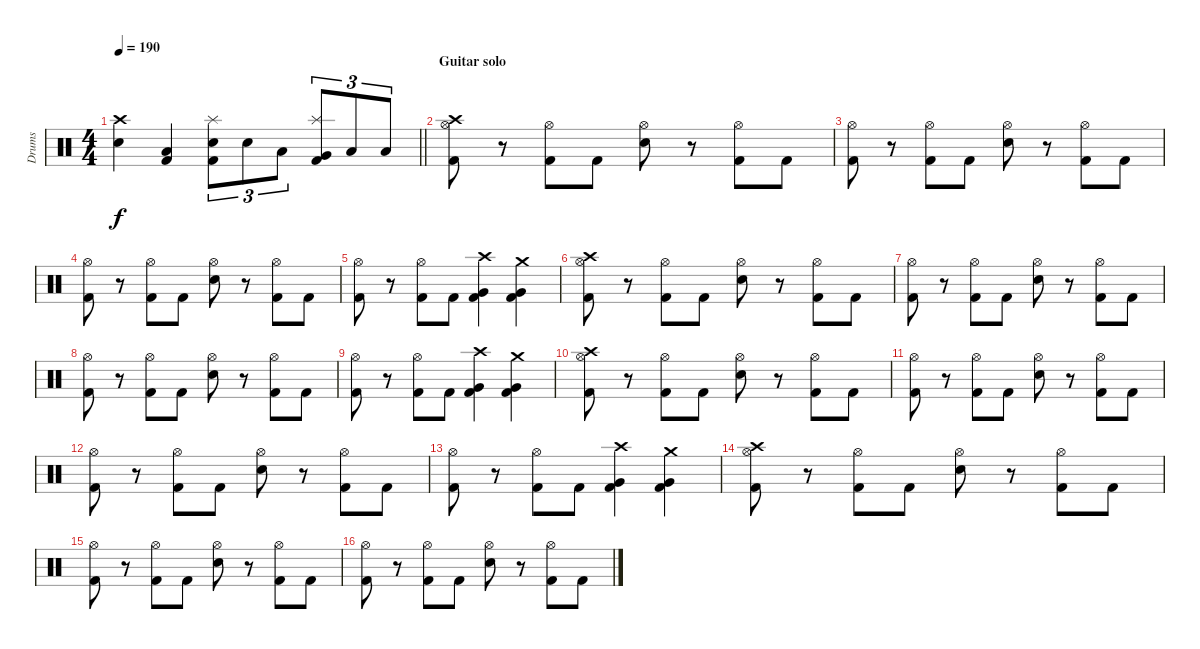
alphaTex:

\track ("Drums" "Drums") {instrument percussion}
\staff {score}
\articulation defaults
\ts (4 4)
\tempo 190
\clef neutral
\barLineRight lightlight
\ks c
("Crash high (hit)" "Snare (hit) 2").4{dy f} ("Low Floor Tom (hit)" "Kick (hit) 2").4 ("Splash (hit)" "Snare (hit) 2" "Kick (hit) 2").8{tu (3 2)} "Snare (hit) 2".8{tu (3 2)} "Low Tom (hit)".8{tu (3 2)} ("Splash (hit)" "Very Low Tom (hit)" "Kick (hit) 2").8{tu (3 2)} "Low Floor Tom (hit)".8{tu (3 2)} "Low Floor Tom (hit)".8{tu (3 2)} |
\section ("" "Guitar solo")
("Crash high (hit)" "Hi-Hat (open)" "Kick (hit) 2").8 r.8 ("Hi-Hat (open)" "Kick (hit) 2").8 "Kick (hit) 2".8 ("Hi-Hat (open)" "Snare (hit) 2").8 r.8 ("Hi-Hat (open)" "Kick (hit) 2").8 "Kick (hit) 2".8 |
("Hi-Hat (open)" "Kick (hit) 2").8 r.8 ("Hi-Hat (open)" "Kick (hit) 2").8 "Kick (hit) 2".8 ("Hi-Hat (open)" "Snare (hit) 2").8 r.8 ("Hi-Hat (open)" "Kick (hit) 2").8 "Kick (hit) 2".8 |
("Hi-Hat (open)" "Kick (hit) 2").8 r.8 ("Hi-Hat (open)" "Kick (hit) 2").8 "Kick (hit) 2".8 ("Hi-Hat (open)" "Snare (hit) 2").8 r.8 ("Hi-Hat (open)" "Kick (hit) 2").8 "Kick (hit) 2".8 |
("Hi-Hat (open)" "Kick (hit) 2").8 r.8 ("Hi-Hat (open)" "Kick (hit) 2").8 "Kick (hit) 2".8 ("Crash high (hit)" "Very Low Tom (hit)" "Kick (hit) 2").4 ("Crash medium (hit)" "Very Low Tom (hit)" "Kick (hit) 2").4 |
("Crash high (hit)" "Hi-Hat (open)" "Kick (hit) 2").8 r.8 ("Hi-Hat (open)" "Kick (hit) 2").8 "Kick (hit) 2".8 ("Hi-Hat (open)" "Snare (hit) 2").8 r.8 ("Hi-Hat (open)" "Kick (hit) 2").8 "Kick (hit) 2".8 |
("Hi-Hat (open)" "Kick (hit) 2").8 r.8 ("Hi-Hat (open)" "Kick (hit) 2").8 "Kick (hit) 2".8 ("Hi-Hat (open)" "Snare (hit) 2").8 r.8 ("Hi-Hat (open)" "Kick (hit) 2").8 "Kick (hit) 2".8 |
("Hi-Hat (open)" "Kick (hit) 2").8 r.8 ("Hi-Hat (open)" "Kick (hit) 2").8 "Kick (hit) 2".8 ("Hi-Hat (open)" "Snare (hit) 2").8 r.8 ("Hi-Hat (open)" "Kick (hit) 2").8 "Kick (hit) 2".8 |
("Hi-Hat (open)" "Kick (hit) 2").8 r.8 ("Hi-Hat (open)" "Kick (hit) 2").8 "Kick (hit) 2".8 ("Crash high (hit)" "Very Low Tom (hit)" "Kick (hit) 2").4 ("Crash medium (hit)" "Very Low Tom (hit)" "Kick (hit) 2").4 |
("Crash high (hit)" "Hi-Hat (open)" "Kick (hit) 2").8 r.8 ("Hi-Hat (open)" "Kick (hit) 2").8 "Kick (hit) 2".8 ("Hi-Hat (open)" "Snare (hit) 2").8 r.8 ("Hi-Hat (open)" "Kick (hit) 2").8 "Kick (hit) 2".8 |
("Hi-Hat (open)" "Kick (hit) 2").8 r.8 ("Hi-Hat (open)" "Kick (hit) 2").8 "Kick (hit) 2".8 ("Hi-Hat (open)" "Snare (hit) 2").8 r.8 ("Hi-Hat (open)" "Kick (hit) 2").8 "Kick (hit) 2".8 |
("Hi-Hat (open)" "Kick (hit) 2").8 r.8 ("Hi-Hat (open)" "Kick (hit) 2").8 "Kick (hit) 2".8 ("Hi-Hat (open)" "Snare (hit) 2").8 r.8 ("Hi-Hat (open)" "Kick (hit) 2").8 "Kick (hit) 2".8 |
("Hi-Hat (open)" "Kick (hit) 2").8 r.8 ("Hi-Hat (open)" "Kick (hit) 2").8 "Kick (hit) 2".8 ("Crash high (hit)" "Very Low Tom (hit)" "Kick (hit) 2").4 ("Crash medium (hit)" "Very Low Tom (hit)" "Kick (hit) 2").4 |
("Crash high (hit)" "Hi-Hat (open)" "Kick (hit) 2").8 r.8 ("Hi-Hat (open)" "Kick (hit) 2").8 "Kick (hit) 2".8 ("Hi-Hat (open)" "Snare (hit) 2").8 r.8 ("Hi-Hat (open)" "Kick (hit) 2").8 "Kick (hit) 2".8 |
("Hi-Hat (open)" "Kick (hit) 2").8 r.8 ("Hi-Hat (open)" "Kick (hit) 2").8 "Kick (hit) 2".8 ("Hi-Hat (open)" "Snare (hit) 2").8 r.8 ("Hi-Hat (open)" "Kick (hit) 2").8 "Kick (hit) 2".8 |
("Hi-Hat (open)" "Kick (hit) 2").8 r.8 ("Hi-Hat (open)" "Kick (hit) 2").8 "Kick (hit) 2".8 ("Hi-Hat (open)" "Snare (hit) 2").8 r.8 ("Hi-Hat (open)" "Kick (hit) 2").8 "Kick (hit) 2".8
